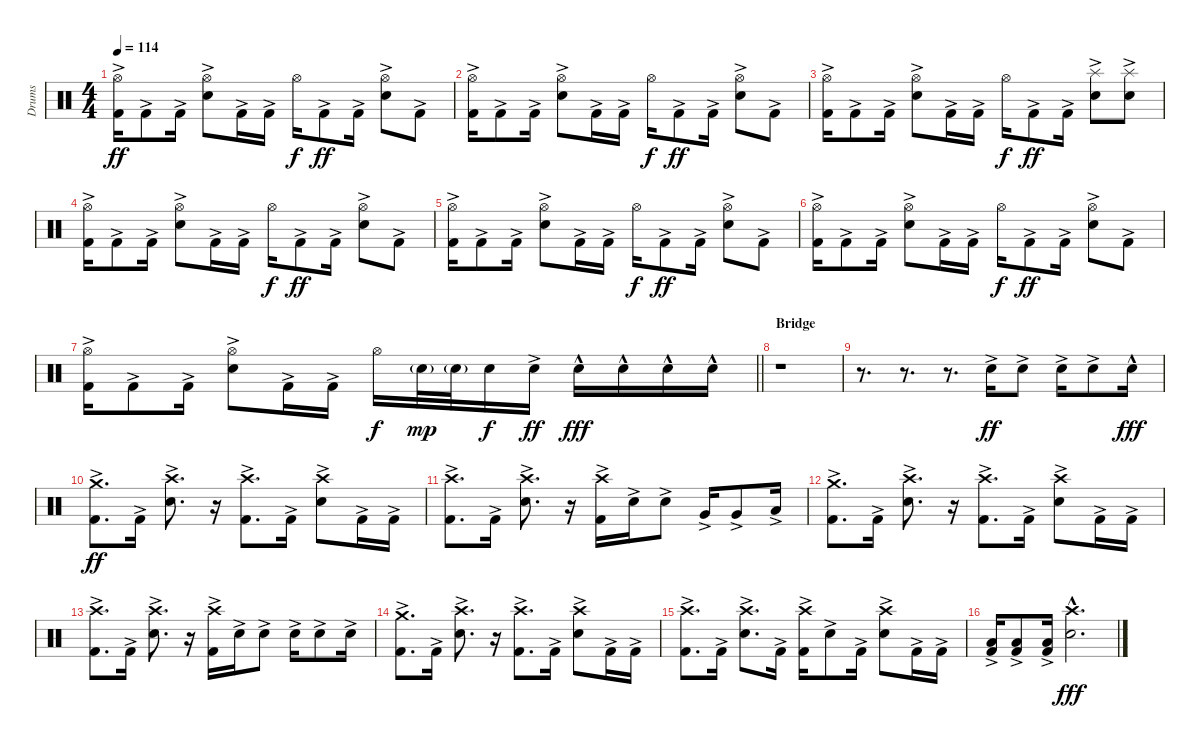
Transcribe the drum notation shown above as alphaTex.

\track ("Drums" "Drums") {instrument percussion}
\staff {score}
\articulation defaults
\ts (4 4)
\tempo 114
\clef neutral
\ks c
("Hi-Hat (open)" "Kick (hit) 2"{ac}).16{dy ff} "Kick (hit) 2"{ac}.8 "Kick (hit) 2"{ac}.16 ("Hi-Hat (open)" "Electric Snare (hit)"{ac}).8 "Kick (hit) 2"{ac}.16 "Kick (hit) 2"{ac}.16 "Hi-Hat (open)".16{dy f} "Kick (hit) 2"{ac}.8{dy ff} "Kick (hit) 2"{ac}.16 ("Hi-Hat (open)" "Electric Snare (hit)"{ac}).8 "Kick (hit) 2"{ac}.8 |
("Hi-Hat (open)" "Kick (hit) 2"{ac}).16 "Kick (hit) 2"{ac}.8 "Kick (hit) 2"{ac}.16 ("Hi-Hat (open)" "Electric Snare (hit)"{ac}).8 "Kick (hit) 2"{ac}.16 "Kick (hit) 2"{ac}.16 "Hi-Hat (open)".16{dy f} "Kick (hit) 2"{ac}.8{dy ff} "Kick (hit) 2"{ac}.16 ("Hi-Hat (open)" "Electric Snare (hit)"{ac}).8 "Kick (hit) 2"{ac}.8 |
("Hi-Hat (open)" "Kick (hit) 2"{ac}).16 "Kick (hit) 2"{ac}.8 "Kick (hit) 2"{ac}.16 ("Hi-Hat (open)" "Electric Snare (hit)"{ac}).8 "Kick (hit) 2"{ac}.16 "Kick (hit) 2"{ac}.16 "Hi-Hat (open)".16{dy f} "Kick (hit) 2"{ac}.8{dy ff} "Kick (hit) 2"{ac}.16 ("Splash (hit)" "Electric Snare (hit)"{ac}).8 ("Splash (hit)" "Electric Snare (hit)"{ac}).8 |
("Hi-Hat (open)" "Kick (hit) 2"{ac}).16 "Kick (hit) 2"{ac}.8 "Kick (hit) 2"{ac}.16 ("Hi-Hat (open)" "Electric Snare (hit)"{ac}).8 "Kick (hit) 2"{ac}.16 "Kick (hit) 2"{ac}.16 "Hi-Hat (open)".16{dy f} "Kick (hit) 2"{ac}.8{dy ff} "Kick (hit) 2"{ac}.16 ("Hi-Hat (open)" "Electric Snare (hit)"{ac}).8 "Kick (hit) 2"{ac}.8 |
("Hi-Hat (open)" "Kick (hit) 2"{ac}).16 "Kick (hit) 2"{ac}.8 "Kick (hit) 2"{ac}.16 ("Hi-Hat (open)" "Electric Snare (hit)"{ac}).8 "Kick (hit) 2"{ac}.16 "Kick (hit) 2"{ac}.16 "Hi-Hat (open)".16{dy f} "Kick (hit) 2"{ac}.8{dy ff} "Kick (hit) 2"{ac}.16 ("Hi-Hat (open)" "Electric Snare (hit)"{ac}).8 "Kick (hit) 2"{ac}.8 |
("Hi-Hat (open)" "Kick (hit) 2"{ac}).16 "Kick (hit) 2"{ac}.8 "Kick (hit) 2"{ac}.16 ("Hi-Hat (open)" "Electric Snare (hit)"{ac}).8 "Kick (hit) 2"{ac}.16 "Kick (hit) 2"{ac}.16 "Hi-Hat (open)".16{dy f} "Kick (hit) 2"{ac}.8{dy ff} "Kick (hit) 2"{ac}.16 ("Hi-Hat (open)" "Electric Snare (hit)"{ac}).8 "Kick (hit) 2"{ac}.8 |
\barLineRight lightlight
("Hi-Hat (open)" "Kick (hit) 2"{ac}).16 "Kick (hit) 2"{ac}.8 "Kick (hit) 2"{ac}.16 ("Hi-Hat (open)" "Electric Snare (hit)"{ac}).8 "Kick (hit) 2"{ac}.16 "Kick (hit) 2"{ac}.16 "Hi-Hat (open)".16{dy f} "Electric Snare (hit)"{g}.32{dy mp} "Electric Snare (hit)"{g}.32 "Electric Snare (hit)".16{dy f} "Electric Snare (hit)"{ac}.16{dy ff} "Electric Snare (hit)"{hac}.16{dy fff} "Electric Snare (hit)"{hac}.16 "Electric Snare (hit)"{hac}.16 "Electric Snare (hit)"{hac}.16 |
\section ("" "Bridge")
r.1 |
r.8{d} r.8{d} r.8{d} "Electric Snare (hit)"{ac}.16{dy ff} "Electric Snare (hit)"{ac}.8 "Electric Snare (hit)"{ac}.16 "Electric Snare (hit)"{ac}.8 "Electric Snare (hit)"{hac}.16{dy fff} |
("Crash medium (hit)" "Kick (hit) 2"{ac}).8{d dy ff} "Kick (hit) 2"{ac}.16 ("Crash high (hit)" "Electric Snare (hit)"{ac}).8{d} r.16 ("Crash high (hit)" "Kick (hit) 2"{ac}).8{d} "Kick (hit) 2"{ac}.16 ("Crash high (hit)" "Electric Snare (hit)"{ac}).8 "Kick (hit) 2"{ac}.16 "Kick (hit) 2"{ac}.16 |
("Crash high (hit)" "Kick (hit) 2"{ac}).8{d} "Kick (hit) 2"{ac}.16 ("Crash high (hit)" "Electric Snare (hit)"{ac}).8{d} r.16 ("Crash high (hit)" "Kick (hit) 2"{ac}).16 "Electric Snare (hit)"{ac}.16 "Electric Snare (hit)"{ac}.8 "Very Low Tom (hit)"{ac}.16 "Very Low Tom (hit)"{ac}.8 "Low Floor Tom (hit)"{ac}.16 |
("Crash medium (hit)" "Kick (hit) 2"{ac}).8{d} "Kick (hit) 2"{ac}.16 ("Crash high (hit)" "Electric Snare (hit)"{ac}).8{d} r.16 ("Crash high (hit)" "Kick (hit) 2"{ac}).8{d} "Kick (hit) 2"{ac}.16 ("Crash high (hit)" "Electric Snare (hit)"{ac}).8 "Kick (hit) 2"{ac}.16 "Kick (hit) 2"{ac}.16 |
("Crash high (hit)" "Kick (hit) 2"{ac}).8{d} "Kick (hit) 2"{ac}.16 ("Crash high (hit)" "Electric Snare (hit)"{ac}).8{d} r.16 ("Crash high (hit)" "Kick (hit) 2"{ac}).16 "Electric Snare (hit)"{ac}.16 "Electric Snare (hit)"{ac}.8 "Electric Snare (hit)"{ac}.16 "Electric Snare (hit)"{ac}.8 "Electric Snare (hit)"{ac}.16 |
("Crash medium (hit)" "Kick (hit) 2"{ac}).8{d} "Kick (hit) 2"{ac}.16 ("Crash high (hit)" "Electric Snare (hit)"{ac}).8{d} r.16 ("Crash high (hit)" "Kick (hit) 2"{ac}).8{d} "Kick (hit) 2"{ac}.16 ("Crash high (hit)" "Electric Snare (hit)"{ac}).8 "Kick (hit) 2"{ac}.16 "Kick (hit) 2"{ac}.16 |
("Crash high (hit)" "Kick (hit) 2"{ac}).8{d} "Kick (hit) 2"{ac}.16 ("Crash high (hit)" "Electric Snare (hit)"{ac}).8{d} "Kick (hit) 2"{ac}.16 ("Crash high (hit)" "Kick (hit) 2"{ac}).16 "Electric Snare (hit)"{ac}.8 "Kick (hit) 2"{ac}.16 ("Crash high (hit)" "Electric Snare (hit)"{ac}).8 "Kick (hit) 2"{ac}.16 "Kick (hit) 2"{ac}.16 |
("Low Floor Tom (hit)"{ac} "Kick (hit) 2"{ac}).16 ("Low Floor Tom (hit)"{ac} "Kick (hit) 2"{ac}).8 ("Low Floor Tom (hit)"{ac} "Kick (hit) 2"{ac}).16 ("Crash high (hit)" "Electric Snare (hit)"{hac}).2{d dy fff}
